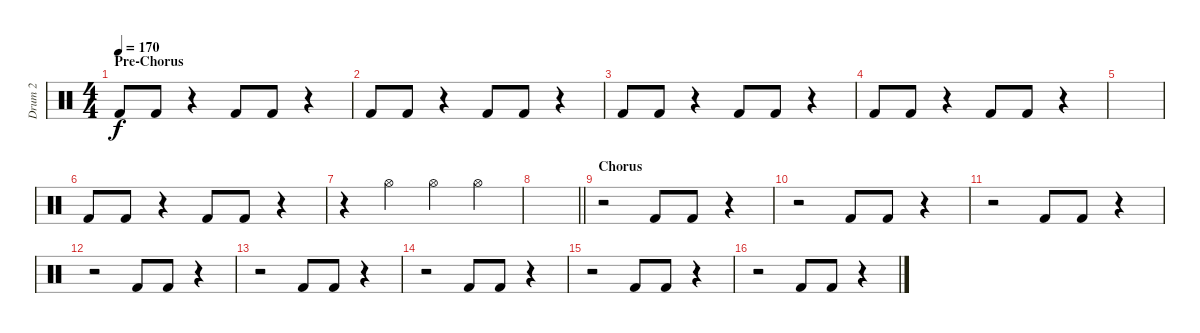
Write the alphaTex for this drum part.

\track ("Drum 2" "Drum 2") {instrument percussion}
\staff {score}
\articulation defaults
\ts (4 4)
\section ("" "Pre-Chorus")
\tempo 170
\clef neutral
\ks c "Kick (hit) 2".8{dy f} "Kick (hit) 2".8
r.4 "Kick (hit) 2".8 "Kick (hit) 2".8 r.4 |
"Kick (hit) 2".8 "Kick (hit) 2".8 r.4 "Kick (hit) 2".8 "Kick (hit) 2".8 r.4 |
"Kick (hit) 2".8 "Kick (hit) 2".8 r.4 "Kick (hit) 2".8 "Kick (hit) 2".8 r.4 |
"Kick (hit) 2".8 "Kick (hit) 2".8 r.4 "Kick (hit) 2".8 "Kick (hit) 2".8 r.4 |
|
"Kick (hit) 2".8 "Kick (hit) 2".8 r.4 "Kick (hit) 2".8 "Kick (hit) 2".8 r.4 |
r.4 "Hi-Hat (open)".4 "Hi-Hat (open)".4 "Hi-Hat (open)".4 |
\barLineRight lightlight
|
\section ("" "Chorus")
r.2 "Kick (hit) 2".8 "Kick (hit) 2".8 r.4 |
r.2 "Kick (hit) 2".8 "Kick (hit) 2".8 r.4 |
r.2 "Kick (hit) 2".8 "Kick (hit) 2".8 r.4 |
r.2 "Kick (hit) 2".8 "Kick (hit) 2".8 r.4 |
r.2 "Kick (hit) 2".8 "Kick (hit) 2".8 r.4 |
r.2 "Kick (hit) 2".8 "Kick (hit) 2".8 r.4 |
r.2 "Kick (hit) 2".8 "Kick (hit) 2".8 r.4 |
r.2 "Kick (hit) 2".8 "Kick (hit) 2".8 r.4
